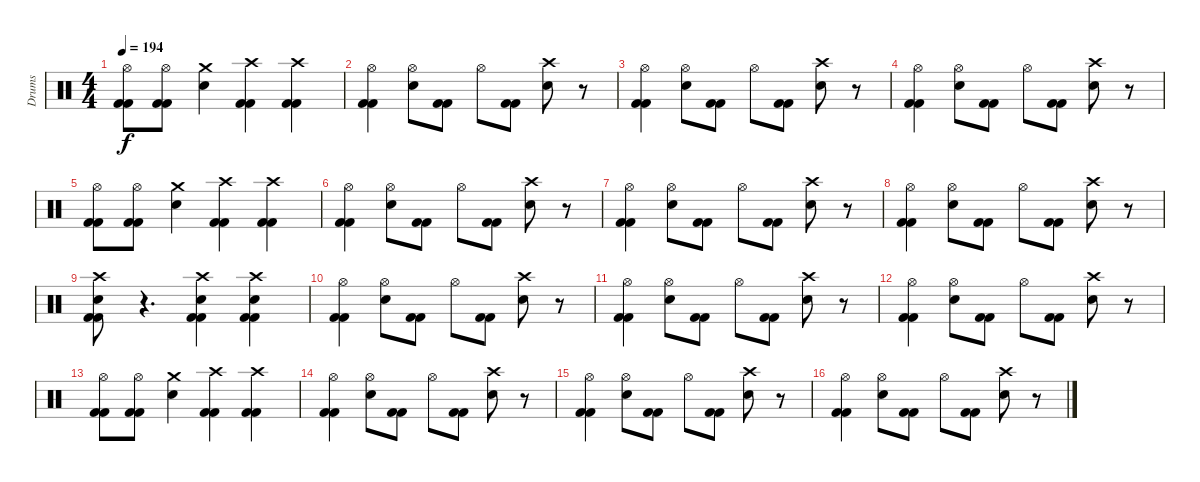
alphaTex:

\track ("Drums" "Drums") {instrument percussion}
\staff {score}
\articulation defaults
\ts (4 4)
\tempo 194
\clef neutral
\ks c
("Hi-Hat (open)" "Kick (hit) 2" "Kick (hit) 2").8{dy f} ("Hi-Hat (open)" "Kick (hit) 2" "Kick (hit) 2").8 ("Crash medium (hit)" "Electric Snare (hit)").4 ("Crash high (hit)" "Kick (hit) 2" "Kick (hit) 2").4 ("Crash high (hit)" "Kick (hit) 2" "Kick (hit) 2").4 |
("Hi-Hat (open)" "Kick (hit) 2" "Kick (hit) 2").4 ("Hi-Hat (open)" "Electric Snare (hit)").8 ("Kick (hit) 2" "Kick (hit) 2").8 "Hi-Hat (open)".8 ("Kick (hit) 2" "Kick (hit) 2").8 ("Crash high (hit)" "Electric Snare (hit)").8 r.8 |
("Hi-Hat (open)" "Kick (hit) 2" "Kick (hit) 2").4 ("Hi-Hat (open)" "Electric Snare (hit)").8 ("Kick (hit) 2" "Kick (hit) 2").8 "Hi-Hat (open)".8 ("Kick (hit) 2" "Kick (hit) 2").8 ("Crash high (hit)" "Electric Snare (hit)").8 r.8 |
("Hi-Hat (open)" "Kick (hit) 2" "Kick (hit) 2").4 ("Hi-Hat (open)" "Electric Snare (hit)").8 ("Kick (hit) 2" "Kick (hit) 2").8 "Hi-Hat (open)".8 ("Kick (hit) 2" "Kick (hit) 2").8 ("Crash high (hit)" "Electric Snare (hit)").8 r.8 |
("Hi-Hat (open)" "Kick (hit) 2" "Kick (hit) 2").8 ("Hi-Hat (open)" "Kick (hit) 2" "Kick (hit) 2").8 ("Crash medium (hit)" "Electric Snare (hit)").4 ("Crash high (hit)" "Kick (hit) 2" "Kick (hit) 2").4 ("Crash high (hit)" "Kick (hit) 2" "Kick (hit) 2").4 |
("Hi-Hat (open)" "Kick (hit) 2" "Kick (hit) 2").4 ("Hi-Hat (open)" "Electric Snare (hit)").8 ("Kick (hit) 2" "Kick (hit) 2").8 "Hi-Hat (open)".8 ("Kick (hit) 2" "Kick (hit) 2").8 ("Crash high (hit)" "Electric Snare (hit)").8 r.8 |
("Hi-Hat (open)" "Kick (hit) 2" "Kick (hit) 2").4 ("Hi-Hat (open)" "Electric Snare (hit)").8 ("Kick (hit) 2" "Kick (hit) 2").8 "Hi-Hat (open)".8 ("Kick (hit) 2" "Kick (hit) 2").8 ("Crash high (hit)" "Electric Snare (hit)").8 r.8 |
("Hi-Hat (open)" "Kick (hit) 2" "Kick (hit) 2").4 ("Hi-Hat (open)" "Electric Snare (hit)").8 ("Kick (hit) 2" "Kick (hit) 2").8 "Hi-Hat (open)".8 ("Kick (hit) 2" "Kick (hit) 2").8 ("Crash high (hit)" "Electric Snare (hit)").8 r.8 |
("Crash high (hit)" "Electric Snare (hit)" "Kick (hit) 2" "Kick (hit) 2").8 r.4{d} ("Crash high (hit)" "Electric Snare (hit)" "Kick (hit) 2" "Kick (hit) 2").4 ("Crash high (hit)" "Electric Snare (hit)" "Kick (hit) 2" "Kick (hit) 2").4 |
("Hi-Hat (open)" "Kick (hit) 2" "Kick (hit) 2").4 ("Hi-Hat (open)" "Electric Snare (hit)").8 ("Kick (hit) 2" "Kick (hit) 2").8 "Hi-Hat (open)".8 ("Kick (hit) 2" "Kick (hit) 2").8 ("Crash high (hit)" "Electric Snare (hit)").8 r.8 |
("Hi-Hat (open)" "Kick (hit) 2" "Kick (hit) 2").4 ("Hi-Hat (open)" "Electric Snare (hit)").8 ("Kick (hit) 2" "Kick (hit) 2").8 "Hi-Hat (open)".8 ("Kick (hit) 2" "Kick (hit) 2").8 ("Crash high (hit)" "Electric Snare (hit)").8 r.8 |
("Hi-Hat (open)" "Kick (hit) 2" "Kick (hit) 2").4 ("Hi-Hat (open)" "Electric Snare (hit)").8 ("Kick (hit) 2" "Kick (hit) 2").8 "Hi-Hat (open)".8 ("Kick (hit) 2" "Kick (hit) 2").8 ("Crash high (hit)" "Electric Snare (hit)").8 r.8 |
("Hi-Hat (open)" "Kick (hit) 2" "Kick (hit) 2").8 ("Hi-Hat (open)" "Kick (hit) 2" "Kick (hit) 2").8 ("Crash medium (hit)" "Electric Snare (hit)").4 ("Crash high (hit)" "Kick (hit) 2" "Kick (hit) 2").4 ("Crash high (hit)" "Kick (hit) 2" "Kick (hit) 2").4 |
("Hi-Hat (open)" "Kick (hit) 2" "Kick (hit) 2").4 ("Hi-Hat (open)" "Electric Snare (hit)").8 ("Kick (hit) 2" "Kick (hit) 2").8 "Hi-Hat (open)".8 ("Kick (hit) 2" "Kick (hit) 2").8 ("Crash high (hit)" "Electric Snare (hit)").8 r.8 |
("Hi-Hat (open)" "Kick (hit) 2" "Kick (hit) 2").4 ("Hi-Hat (open)" "Electric Snare (hit)").8 ("Kick (hit) 2" "Kick (hit) 2").8 "Hi-Hat (open)".8 ("Kick (hit) 2" "Kick (hit) 2").8 ("Crash high (hit)" "Electric Snare (hit)").8 r.8 |
("Hi-Hat (open)" "Kick (hit) 2" "Kick (hit) 2").4 ("Hi-Hat (open)" "Electric Snare (hit)").8 ("Kick (hit) 2" "Kick (hit) 2").8 "Hi-Hat (open)".8 ("Kick (hit) 2" "Kick (hit) 2").8 ("Crash high (hit)" "Electric Snare (hit)").8 r.8
